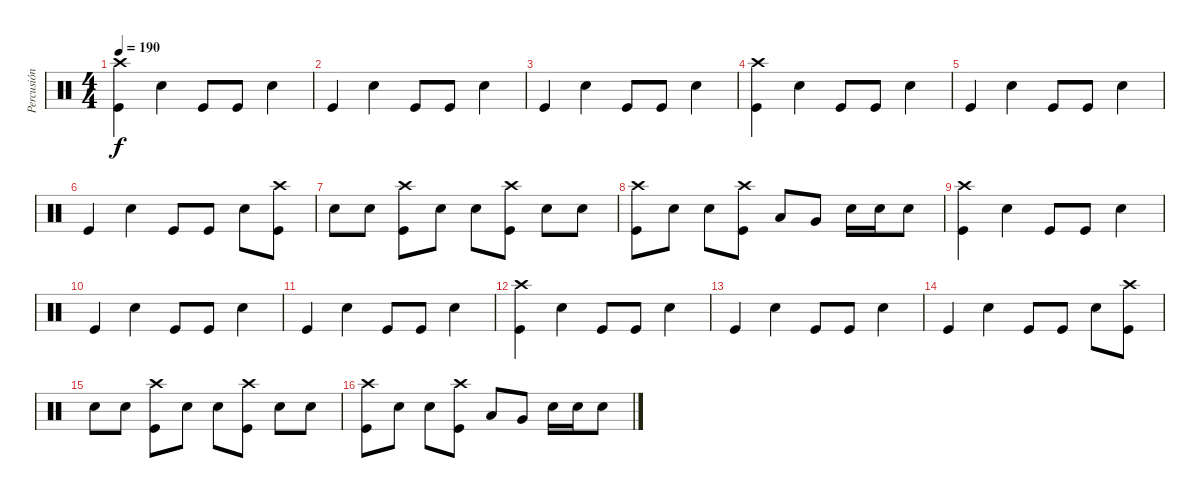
\track ("Percusión" "Percusión") {instrument percussion}
\staff {score}
\articulation defaults
\ts (4 4)
\tempo 190
\clef neutral
\ks c
("Crash high (hit)" "Kick (hit)").4{dy f} "Electric Snare (hit)".4 "Kick (hit)".8 "Kick (hit)".8 "Electric Snare (hit)".4 |
"Kick (hit)".4 "Electric Snare (hit)".4 "Kick (hit)".8 "Kick (hit)".8 "Electric Snare (hit)".4 |
"Kick (hit)".4 "Electric Snare (hit)".4 "Kick (hit)".8 "Kick (hit)".8 "Electric Snare (hit)".4 |
("Crash high (hit)" "Kick (hit)").4 "Electric Snare (hit)".4 "Kick (hit)".8 "Kick (hit)".8 "Electric Snare (hit)".4 |
"Kick (hit)".4 "Electric Snare (hit)".4 "Kick (hit)".8 "Kick (hit)".8 "Electric Snare (hit)".4 |
"Kick (hit)".4 "Electric Snare (hit)".4 "Kick (hit)".8 "Kick (hit)".8 "Electric Snare (hit)".8 ("Crash high (hit)" "Kick (hit)").8 |
"Electric Snare (hit)".8 "Electric Snare (hit)".8 ("Crash high (hit)" "Kick (hit)").8 "Electric Snare (hit)".8 "Electric Snare (hit)".8 ("Crash high (hit)" "Kick (hit)").8 "Electric Snare (hit)".8 "Electric Snare (hit)".8 |
("Crash high (hit)" "Kick (hit)").8 "Electric Snare (hit)".8 "Electric Snare (hit)".8 ("Crash high (hit)" "Kick (hit)").8 "Low Floor Tom (hit)".8 "Very Low Tom (hit)".8 "Electric Snare (hit)".16 "Electric Snare (hit)".16 "Electric Snare (hit)".8 |
("Crash high (hit)" "Kick (hit)").4 "Electric Snare (hit)".4 "Kick (hit)".8 "Kick (hit)".8 "Electric Snare (hit)".4 |
"Kick (hit)".4 "Electric Snare (hit)".4 "Kick (hit)".8 "Kick (hit)".8 "Electric Snare (hit)".4 |
"Kick (hit)".4 "Electric Snare (hit)".4 "Kick (hit)".8 "Kick (hit)".8 "Electric Snare (hit)".4 |
("Crash high (hit)" "Kick (hit)").4 "Electric Snare (hit)".4 "Kick (hit)".8 "Kick (hit)".8 "Electric Snare (hit)".4 |
"Kick (hit)".4 "Electric Snare (hit)".4 "Kick (hit)".8 "Kick (hit)".8 "Electric Snare (hit)".4 |
"Kick (hit)".4 "Electric Snare (hit)".4 "Kick (hit)".8 "Kick (hit)".8 "Electric Snare (hit)".8 ("Crash high (hit)" "Kick (hit)").8 |
"Electric Snare (hit)".8 "Electric Snare (hit)".8 ("Crash high (hit)" "Kick (hit)").8 "Electric Snare (hit)".8 "Electric Snare (hit)".8 ("Crash high (hit)" "Kick (hit)").8 "Electric Snare (hit)".8 "Electric Snare (hit)".8 |
("Crash high (hit)" "Kick (hit)").8 "Electric Snare (hit)".8 "Electric Snare (hit)".8 ("Crash high (hit)" "Kick (hit)").8 "Low Floor Tom (hit)".8 "Very Low Tom (hit)".8 "Electric Snare (hit)".16 "Electric Snare (hit)".16 "Electric Snare (hit)".8
